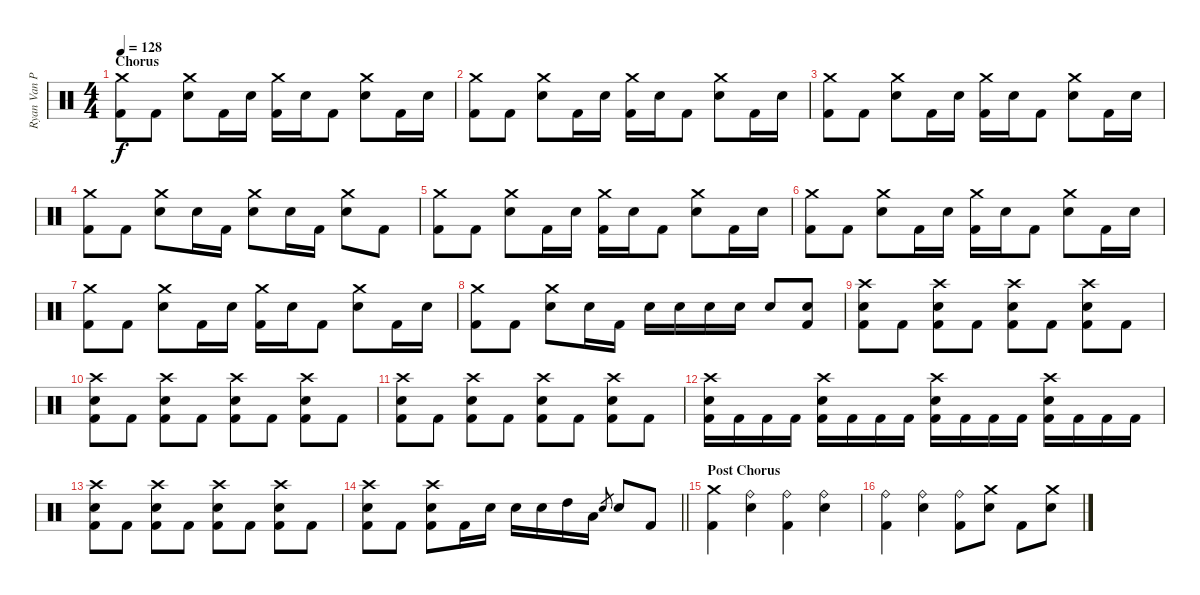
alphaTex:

\track ("Ryan Van Poederooyen" "Ryan Van P") {instrument percussion}
\staff {score}
\articulation defaults
\ts (4 4)
\section ("" "Chorus")
\tempo 128
\clef neutral
\ks c
("Crash medium (hit)" "Kick (hit) 2").8{dy f} "Kick (hit) 2".8 ("Crash medium (hit)" "Electric Snare (hit)").8 "Kick (hit) 2".16 "Electric Snare (hit)".16 ("Crash medium (hit)" "Kick (hit) 2").16 "Electric Snare (hit)".16 "Kick (hit) 2".8 ("Crash medium (hit)" "Electric Snare (hit)").8 "Kick (hit) 2".16 "Electric Snare (hit)".16 |
("Crash medium (hit)" "Kick (hit) 2").8 "Kick (hit) 2".8 ("Crash medium (hit)" "Electric Snare (hit)").8 "Kick (hit) 2".16 "Electric Snare (hit)".16 ("Crash medium (hit)" "Kick (hit) 2").16 "Electric Snare (hit)".16 "Kick (hit) 2".8 ("Crash medium (hit)" "Electric Snare (hit)").8 "Kick (hit) 2".16 "Electric Snare (hit)".16 |
("Crash medium (hit)" "Kick (hit) 2").8 "Kick (hit) 2".8 ("Crash medium (hit)" "Electric Snare (hit)").8 "Kick (hit) 2".16 "Electric Snare (hit)".16 ("Crash medium (hit)" "Kick (hit) 2").16 "Electric Snare (hit)".16 "Kick (hit) 2".8 ("Crash medium (hit)" "Electric Snare (hit)").8 "Kick (hit) 2".16 "Electric Snare (hit)".16 |
("Crash medium (hit)" "Kick (hit) 2").8 "Kick (hit) 2".8 ("Crash medium (hit)" "Electric Snare (hit)").8 "Electric Snare (hit)".16 "Kick (hit) 2".16 ("Crash medium (hit)" "Electric Snare (hit)").8 "Electric Snare (hit)".16 "Kick (hit) 2".16 ("Crash medium (hit)" "Electric Snare (hit)").8 "Kick (hit) 2".8 |
("Crash medium (hit)" "Kick (hit) 2").8 "Kick (hit) 2".8 ("Crash medium (hit)" "Electric Snare (hit)").8 "Kick (hit) 2".16 "Electric Snare (hit)".16 ("Crash medium (hit)" "Kick (hit) 2").16 "Electric Snare (hit)".16 "Kick (hit) 2".8 ("Crash medium (hit)" "Electric Snare (hit)").8 "Kick (hit) 2".16 "Electric Snare (hit)".16 |
("Crash medium (hit)" "Kick (hit) 2").8 "Kick (hit) 2".8 ("Crash medium (hit)" "Electric Snare (hit)").8 "Kick (hit) 2".16 "Electric Snare (hit)".16 ("Crash medium (hit)" "Kick (hit) 2").16 "Electric Snare (hit)".16 "Kick (hit) 2".8 ("Crash medium (hit)" "Electric Snare (hit)").8 "Kick (hit) 2".16 "Electric Snare (hit)".16 |
("Crash medium (hit)" "Kick (hit) 2").8 "Kick (hit) 2".8 ("Crash medium (hit)" "Electric Snare (hit)").8 "Kick (hit) 2".16 "Electric Snare (hit)".16 ("Crash medium (hit)" "Kick (hit) 2").16 "Electric Snare (hit)".16 "Kick (hit) 2".8 ("Crash medium (hit)" "Electric Snare (hit)").8 "Kick (hit) 2".16 "Electric Snare (hit)".16 |
("Crash medium (hit)" "Kick (hit) 2").8 "Kick (hit) 2".8 ("Crash medium (hit)" "Electric Snare (hit)").8 "Electric Snare (hit)".16 "Kick (hit) 2".16 "Electric Snare (hit)".16 "Electric Snare (hit)".16 "Electric Snare (hit)".16 "Electric Snare (hit)".16 "Electric Snare (hit)".8 ("Electric Snare (hit)" "Kick (hit) 2").8 |
("Crash high (hit)" "Electric Snare (hit)" "Kick (hit) 2").8 "Kick (hit) 2".8 ("Crash high (hit)" "Electric Snare (hit)" "Kick (hit) 2").8 "Kick (hit) 2".8 ("Crash high (hit)" "Electric Snare (hit)" "Kick (hit) 2").8 "Kick (hit) 2".8 ("Crash high (hit)" "Electric Snare (hit)" "Kick (hit) 2").8 "Kick (hit) 2".8 |
("Crash high (hit)" "Electric Snare (hit)" "Kick (hit) 2").8 "Kick (hit) 2".8 ("Crash high (hit)" "Electric Snare (hit)" "Kick (hit) 2").8 "Kick (hit) 2".8 ("Crash high (hit)" "Electric Snare (hit)" "Kick (hit) 2").8 "Kick (hit) 2".8 ("Crash high (hit)" "Electric Snare (hit)" "Kick (hit) 2").8 "Kick (hit) 2".8 |
("Crash high (hit)" "Electric Snare (hit)" "Kick (hit) 2").8 "Kick (hit) 2".8 ("Crash high (hit)" "Electric Snare (hit)" "Kick (hit) 2").8 "Kick (hit) 2".8 ("Crash high (hit)" "Electric Snare (hit)" "Kick (hit) 2").8 "Kick (hit) 2".8 ("Crash high (hit)" "Electric Snare (hit)" "Kick (hit) 2").8 "Kick (hit) 2".8 |
("Crash high (hit)" "Electric Snare (hit)" "Kick (hit) 2").16 "Kick (hit) 2".16 "Kick (hit) 2".16 "Kick (hit) 2".16 ("Crash high (hit)" "Electric Snare (hit)" "Kick (hit) 2").16 "Kick (hit) 2".16 "Kick (hit) 2".16 "Kick (hit) 2".16 ("Crash high (hit)" "Electric Snare (hit)" "Kick (hit) 2").16 "Kick (hit) 2".16 "Kick (hit) 2".16 "Kick (hit) 2".16 ("Crash high (hit)" "Electric Snare (hit)" "Kick (hit) 2").16 "Kick (hit) 2".16 "Kick (hit) 2".16 "Kick (hit) 2".16 |
("Crash high (hit)" "Electric Snare (hit)" "Kick (hit) 2").8 "Kick (hit) 2".8 ("Crash high (hit)" "Electric Snare (hit)" "Kick (hit) 2").8 "Kick (hit) 2".8 ("Crash high (hit)" "Electric Snare (hit)" "Kick (hit) 2").8 "Kick (hit) 2".8 ("Crash high (hit)" "Electric Snare (hit)" "Kick (hit) 2").8 "Kick (hit) 2".8 |
\barLineRight lightlight
("Crash high (hit)" "Electric Snare (hit)" "Kick (hit) 2").8 "Kick (hit) 2".8 ("Crash high (hit)" "Electric Snare (hit)" "Kick (hit) 2").8 "Kick (hit) 2".16 "Electric Snare (hit)".16 "Electric Snare (hit)".16 "Electric Snare (hit)".16 "High Tom (hit)".16 "Low Tom (hit)".16 "Electric Snare (hit)".8{gr} "Electric Snare (hit)".8 "Kick (hit) 2".8 |
\section ("" "Post Chorus")
("Crash medium (hit)" "Kick (hit) 2").4 ("Ride (bell)" "Electric Snare (hit)").4 ("Ride (bell)" "Kick (hit) 2").4 ("Ride (bell)" "Electric Snare (hit)").4 |
("Ride (bell)" "Kick (hit) 2").4 ("Ride (bell)" "Electric Snare (hit)").4 ("Ride (bell)" "Kick (hit) 2").8 ("Crash medium (hit)" "Electric Snare (hit)").8 "Kick (hit) 2".8 ("Crash medium (hit)" "Electric Snare (hit)").8
